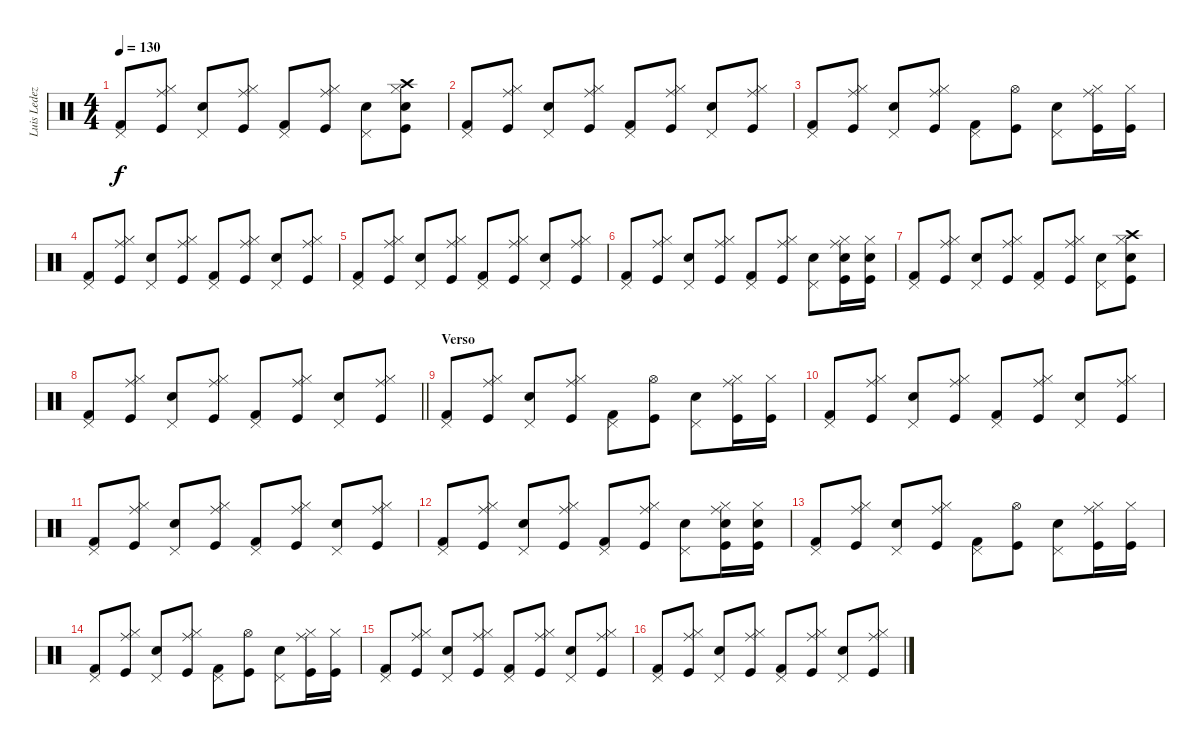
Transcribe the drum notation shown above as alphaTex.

\track ("Luis Ledezma (bateria)" "Luis Ledez") {instrument percussion}
\staff {score}
\articulation defaults
\ts (4 4)
\tempo 130
\clef neutral
\ks c
("Pedal Hi-Hat (hit)" "Kick (hit) 2").8{dy f volume 16} ("Ride (middle)" "Hi-Hat (closed)" "Kick (hit)").8 ("Pedal Hi-Hat (hit)" "Snare (hit) 2").8 ("Ride (middle)" "Hi-Hat (closed)" "Kick (hit)").8 ("Pedal Hi-Hat (hit)" "Kick (hit) 2").8 ("Ride (middle)" "Hi-Hat (closed)" "Kick (hit)").8 ("Pedal Hi-Hat (hit)" "Snare (hit) 2").8 ("Crash high (hit)" "Hi-Hat (closed)" "Snare (hit) 2" "Kick (hit)").8 |
("Pedal Hi-Hat (hit)" "Kick (hit) 2").8 ("Ride (middle)" "Hi-Hat (closed)" "Kick (hit)").8 ("Pedal Hi-Hat (hit)" "Snare (hit) 2").8 ("Ride (middle)" "Hi-Hat (closed)" "Kick (hit)").8 ("Pedal Hi-Hat (hit)" "Kick (hit) 2").8 ("Ride (middle)" "Hi-Hat (closed)" "Kick (hit)").8 ("Pedal Hi-Hat (hit)" "Snare (hit) 2").8 ("Ride (middle)" "Hi-Hat (closed)" "Kick (hit)").8 |
("Pedal Hi-Hat (hit)" "Kick (hit) 2").8 ("Ride (middle)" "Hi-Hat (closed)" "Kick (hit)").8 ("Pedal Hi-Hat (hit)" "Snare (hit) 2").8 ("Ride (middle)" "Hi-Hat (closed)" "Kick (hit)").8 ("Pedal Hi-Hat (hit)" "Kick (hit) 2").8 ("Hi-Hat (open)" "Kick (hit)").8 ("Pedal Hi-Hat (hit)" "Snare (hit) 2").8 ("Ride (middle)" "Hi-Hat (closed)" "Kick (hit)").16 ("Hi-Hat (closed)" "Kick (hit)").16 |
("Pedal Hi-Hat (hit)" "Kick (hit) 2").8 ("Ride (middle)" "Hi-Hat (closed)" "Kick (hit)").8 ("Pedal Hi-Hat (hit)" "Snare (hit) 2").8 ("Ride (middle)" "Hi-Hat (closed)" "Kick (hit)").8 ("Pedal Hi-Hat (hit)" "Kick (hit) 2").8 ("Ride (middle)" "Hi-Hat (closed)" "Kick (hit)").8 ("Pedal Hi-Hat (hit)" "Snare (hit) 2").8 ("Ride (middle)" "Hi-Hat (closed)" "Kick (hit)").8 |
("Pedal Hi-Hat (hit)" "Kick (hit) 2").8 ("Ride (middle)" "Hi-Hat (closed)" "Kick (hit)").8 ("Pedal Hi-Hat (hit)" "Snare (hit) 2").8 ("Ride (middle)" "Hi-Hat (closed)" "Kick (hit)").8 ("Pedal Hi-Hat (hit)" "Kick (hit) 2").8 ("Ride (middle)" "Hi-Hat (closed)" "Kick (hit)").8 ("Pedal Hi-Hat (hit)" "Snare (hit) 2").8 ("Ride (middle)" "Hi-Hat (closed)" "Kick (hit)").8 |
("Pedal Hi-Hat (hit)" "Kick (hit) 2").8 ("Ride (middle)" "Hi-Hat (closed)" "Kick (hit)").8 ("Pedal Hi-Hat (hit)" "Snare (hit) 2").8 ("Ride (middle)" "Hi-Hat (closed)" "Kick (hit)").8 ("Pedal Hi-Hat (hit)" "Kick (hit) 2").8 ("Ride (middle)" "Hi-Hat (closed)" "Kick (hit)").8 ("Pedal Hi-Hat (hit)" "Snare (hit) 2").8 ("Ride (middle)" "Hi-Hat (closed)" "Snare (hit) 2" "Kick (hit)").16 ("Hi-Hat (closed)" "Snare (hit) 2" "Kick (hit)").16 |
("Pedal Hi-Hat (hit)" "Kick (hit) 2").8 ("Ride (middle)" "Hi-Hat (closed)" "Kick (hit)").8 ("Pedal Hi-Hat (hit)" "Snare (hit) 2").8 ("Ride (middle)" "Hi-Hat (closed)" "Kick (hit)").8 ("Pedal Hi-Hat (hit)" "Kick (hit) 2").8 ("Ride (middle)" "Hi-Hat (closed)" "Kick (hit)").8 ("Pedal Hi-Hat (hit)" "Snare (hit) 2").8 ("Crash high (hit)" "Hi-Hat (closed)" "Snare (hit) 2" "Kick (hit)").8 |
\barLineRight lightlight
("Pedal Hi-Hat (hit)" "Kick (hit) 2").8 ("Ride (middle)" "Hi-Hat (closed)" "Kick (hit)").8 ("Pedal Hi-Hat (hit)" "Snare (hit) 2").8 ("Ride (middle)" "Hi-Hat (closed)" "Kick (hit)").8 ("Pedal Hi-Hat (hit)" "Kick (hit) 2").8 ("Ride (middle)" "Hi-Hat (closed)" "Kick (hit)").8 ("Pedal Hi-Hat (hit)" "Snare (hit) 2").8 ("Ride (middle)" "Hi-Hat (closed)" "Kick (hit)").8 |
\section ("" "Verso")
("Pedal Hi-Hat (hit)" "Kick (hit) 2").8 ("Ride (middle)" "Hi-Hat (closed)" "Kick (hit)").8 ("Pedal Hi-Hat (hit)" "Snare (hit) 2").8 ("Ride (middle)" "Hi-Hat (closed)" "Kick (hit)").8 ("Pedal Hi-Hat (hit)" "Kick (hit) 2").8 ("Hi-Hat (open)" "Kick (hit)").8 ("Pedal Hi-Hat (hit)" "Snare (hit) 2").8 ("Ride (middle)" "Hi-Hat (closed)" "Kick (hit)").16 ("Hi-Hat (closed)" "Kick (hit)").16 |
("Pedal Hi-Hat (hit)" "Kick (hit) 2").8 ("Ride (middle)" "Hi-Hat (closed)" "Kick (hit)").8 ("Pedal Hi-Hat (hit)" "Snare (hit) 2").8 ("Ride (middle)" "Hi-Hat (closed)" "Kick (hit)").8 ("Pedal Hi-Hat (hit)" "Kick (hit) 2").8 ("Ride (middle)" "Hi-Hat (closed)" "Kick (hit)").8 ("Pedal Hi-Hat (hit)" "Snare (hit) 2").8 ("Ride (middle)" "Hi-Hat (closed)" "Kick (hit)").8 |
("Pedal Hi-Hat (hit)" "Kick (hit) 2").8 ("Ride (middle)" "Hi-Hat (closed)" "Kick (hit)").8 ("Pedal Hi-Hat (hit)" "Snare (hit) 2").8 ("Ride (middle)" "Hi-Hat (closed)" "Kick (hit)").8 ("Pedal Hi-Hat (hit)" "Kick (hit) 2").8 ("Ride (middle)" "Hi-Hat (closed)" "Kick (hit)").8 ("Pedal Hi-Hat (hit)" "Snare (hit) 2").8 ("Ride (middle)" "Hi-Hat (closed)" "Kick (hit)").8 |
("Pedal Hi-Hat (hit)" "Kick (hit) 2").8 ("Ride (middle)" "Hi-Hat (closed)" "Kick (hit)").8 ("Pedal Hi-Hat (hit)" "Snare (hit) 2").8 ("Ride (middle)" "Hi-Hat (closed)" "Kick (hit)").8 ("Pedal Hi-Hat (hit)" "Kick (hit) 2").8 ("Ride (middle)" "Hi-Hat (closed)" "Kick (hit)").8 ("Pedal Hi-Hat (hit)" "Snare (hit) 2").8 ("Ride (middle)" "Hi-Hat (closed)" "Snare (hit) 2" "Kick (hit)").16 ("Hi-Hat (closed)" "Snare (hit) 2" "Kick (hit)").16 |
("Pedal Hi-Hat (hit)" "Kick (hit) 2").8 ("Ride (middle)" "Hi-Hat (closed)" "Kick (hit)").8 ("Pedal Hi-Hat (hit)" "Snare (hit) 2").8 ("Ride (middle)" "Hi-Hat (closed)" "Kick (hit)").8 ("Pedal Hi-Hat (hit)" "Kick (hit) 2").8 ("Hi-Hat (open)" "Kick (hit)").8 ("Pedal Hi-Hat (hit)" "Snare (hit) 2").8 ("Ride (middle)" "Hi-Hat (closed)" "Kick (hit)").16 ("Hi-Hat (closed)" "Kick (hit)").16 |
("Pedal Hi-Hat (hit)" "Kick (hit) 2").8 ("Ride (middle)" "Hi-Hat (closed)" "Kick (hit)").8 ("Pedal Hi-Hat (hit)" "Snare (hit) 2").8 ("Ride (middle)" "Hi-Hat (closed)" "Kick (hit)").8 ("Pedal Hi-Hat (hit)" "Kick (hit) 2").8 ("Hi-Hat (open)" "Kick (hit)").8 ("Pedal Hi-Hat (hit)" "Snare (hit) 2").8 ("Ride (middle)" "Hi-Hat (closed)" "Kick (hit)").16 ("Hi-Hat (closed)" "Kick (hit)").16 |
("Pedal Hi-Hat (hit)" "Kick (hit) 2").8 ("Ride (middle)" "Hi-Hat (closed)" "Kick (hit)").8 ("Pedal Hi-Hat (hit)" "Snare (hit) 2").8 ("Ride (middle)" "Hi-Hat (closed)" "Kick (hit)").8 ("Pedal Hi-Hat (hit)" "Kick (hit) 2").8 ("Ride (middle)" "Hi-Hat (closed)" "Kick (hit)").8 ("Pedal Hi-Hat (hit)" "Snare (hit) 2").8 ("Ride (middle)" "Hi-Hat (closed)" "Kick (hit)").8 |
("Pedal Hi-Hat (hit)" "Kick (hit) 2").8 ("Ride (middle)" "Hi-Hat (closed)" "Kick (hit)").8 ("Pedal Hi-Hat (hit)" "Snare (hit) 2").8 ("Ride (middle)" "Hi-Hat (closed)" "Kick (hit)").8 ("Pedal Hi-Hat (hit)" "Kick (hit) 2").8 ("Ride (middle)" "Hi-Hat (closed)" "Kick (hit)").8 ("Pedal Hi-Hat (hit)" "Snare (hit) 2").8 ("Ride (middle)" "Hi-Hat (closed)" "Kick (hit)").8
